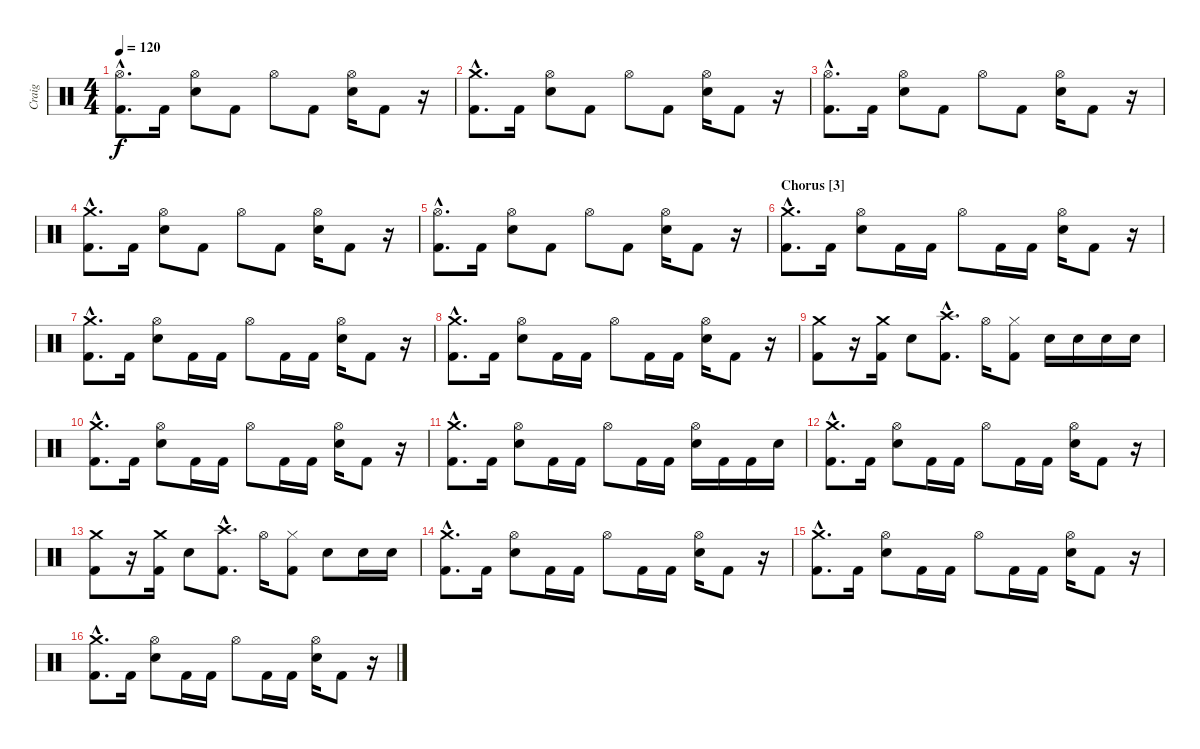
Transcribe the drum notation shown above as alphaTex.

\track ("Craig" "Craig") {instrument percussion}
\staff {score}
\articulation defaults
\ts (4 4)
\tempo 120
\clef neutral
\ks c
("Hi-Hat (open)"{hac} "Kick (hit) 2"{hac}).8{d dy f} "Kick (hit) 2".16 ("Hi-Hat (open)" "Electric Snare (hit)").8 "Kick (hit) 2".8 "Hi-Hat (open)".8 "Kick (hit) 2".8 ("Hi-Hat (open)" "Electric Snare (hit)").16 "Kick (hit) 2".8 r.16 |
("Crash medium (hit)"{hac} "Kick (hit) 2"{hac}).8{d} "Kick (hit) 2".16 ("Hi-Hat (open)" "Electric Snare (hit)").8 "Kick (hit) 2".8 "Hi-Hat (open)".8 "Kick (hit) 2".8 ("Hi-Hat (open)" "Electric Snare (hit)").16 "Kick (hit) 2".8 r.16 |
("Hi-Hat (open)"{hac} "Kick (hit) 2"{hac}).8{d} "Kick (hit) 2".16 ("Hi-Hat (open)" "Electric Snare (hit)").8 "Kick (hit) 2".8 "Hi-Hat (open)".8 "Kick (hit) 2".8 ("Hi-Hat (open)" "Electric Snare (hit)").16 "Kick (hit) 2".8 r.16 |
("Crash medium (hit)"{hac} "Kick (hit) 2"{hac}).8{d} "Kick (hit) 2".16 ("Hi-Hat (open)" "Electric Snare (hit)").8 "Kick (hit) 2".8 "Hi-Hat (open)".8 "Kick (hit) 2".8 ("Hi-Hat (open)" "Electric Snare (hit)").16 "Kick (hit) 2".8 r.16 |
("Hi-Hat (open)"{hac} "Kick (hit) 2"{hac}).8{d} "Kick (hit) 2".16 ("Hi-Hat (open)" "Electric Snare (hit)").8 "Kick (hit) 2".8 "Hi-Hat (open)".8 "Kick (hit) 2".8 ("Hi-Hat (open)" "Electric Snare (hit)").16 "Kick (hit) 2".8 r.16 |
\section ("" "Chorus [3]")
("Crash medium (hit)"{hac} "Kick (hit) 2"{hac}).8{d} "Kick (hit) 2".16 ("Hi-Hat (open)" "Electric Snare (hit)").8 "Kick (hit) 2".16 "Kick (hit) 2".16 "Hi-Hat (open)".8 "Kick (hit) 2".16 "Kick (hit) 2".16 ("Hi-Hat (open)" "Electric Snare (hit)").16 "Kick (hit) 2".8 r.16 |
("Crash medium (hit)"{hac} "Kick (hit) 2"{hac}).8{d} "Kick (hit) 2".16 ("Hi-Hat (open)" "Electric Snare (hit)").8 "Kick (hit) 2".16 "Kick (hit) 2".16 "Hi-Hat (open)".8 "Kick (hit) 2".16 "Kick (hit) 2".16 ("Hi-Hat (open)" "Electric Snare (hit)").16 "Kick (hit) 2".8 r.16 |
("Crash medium (hit)"{hac} "Kick (hit) 2"{hac}).8{d} "Kick (hit) 2".16 ("Hi-Hat (open)" "Electric Snare (hit)").8 "Kick (hit) 2".16 "Kick (hit) 2".16 "Hi-Hat (open)".8 "Kick (hit) 2".16 "Kick (hit) 2".16 ("Hi-Hat (open)" "Electric Snare (hit)").16 "Kick (hit) 2".8 r.16 |
("Crash medium (hit)" "Kick (hit) 2").8 r.16 ("Crash medium (hit)" "Kick (hit) 2").16 "Electric Snare (hit)".8 ("Crash high (hit)"{hac} "Kick (hit) 2"{hac}).8{d} "Hi-Hat (open)".16 ("Hi-Hat (closed)" "Kick (hit) 2").8 "Electric Snare (hit)".16 "Electric Snare (hit)".16 "Electric Snare (hit)".16 "Electric Snare (hit)".16 |
("Crash medium (hit)"{hac} "Kick (hit) 2"{hac}).8{d} "Kick (hit) 2".16 ("Hi-Hat (open)" "Electric Snare (hit)").8 "Kick (hit) 2".16 "Kick (hit) 2".16 "Hi-Hat (open)".8 "Kick (hit) 2".16 "Kick (hit) 2".16 ("Hi-Hat (open)" "Electric Snare (hit)").16 "Kick (hit) 2".8 r.16 |
("Crash medium (hit)"{hac} "Kick (hit) 2"{hac}).8{d} "Kick (hit) 2".16 ("Hi-Hat (open)" "Electric Snare (hit)").8 "Kick (hit) 2".16 "Kick (hit) 2".16 "Hi-Hat (open)".8 "Kick (hit) 2".16 "Kick (hit) 2".16 ("Hi-Hat (open)" "Electric Snare (hit)").16 "Kick (hit) 2".16 "Kick (hit) 2".16 "Electric Snare (hit)".16 |
("Crash medium (hit)"{hac} "Kick (hit) 2"{hac}).8{d} "Kick (hit) 2".16 ("Hi-Hat (open)" "Electric Snare (hit)").8 "Kick (hit) 2".16 "Kick (hit) 2".16 "Hi-Hat (open)".8 "Kick (hit) 2".16 "Kick (hit) 2".16 ("Hi-Hat (open)" "Electric Snare (hit)").16 "Kick (hit) 2".8 r.16 |
("Crash medium (hit)" "Kick (hit) 2").8 r.16 ("Crash medium (hit)" "Kick (hit) 2").16 "Electric Snare (hit)".8 ("Crash high (hit)"{hac} "Kick (hit) 2"{hac}).8{d} "Hi-Hat (open)".16 ("Hi-Hat (closed)" "Kick (hit) 2").8 "Electric Snare (hit)".8 "Electric Snare (hit)".16 "Electric Snare (hit)".16 |
("Crash medium (hit)"{hac} "Kick (hit) 2"{hac}).8{d} "Kick (hit) 2".16 ("Hi-Hat (open)" "Electric Snare (hit)").8 "Kick (hit) 2".16 "Kick (hit) 2".16 "Hi-Hat (open)".8 "Kick (hit) 2".16 "Kick (hit) 2".16 ("Hi-Hat (open)" "Electric Snare (hit)").16 "Kick (hit) 2".8 r.16 |
("Crash medium (hit)"{hac} "Kick (hit) 2"{hac}).8{d} "Kick (hit) 2".16 ("Hi-Hat (open)" "Electric Snare (hit)").8 "Kick (hit) 2".16 "Kick (hit) 2".16 "Hi-Hat (open)".8 "Kick (hit) 2".16 "Kick (hit) 2".16 ("Hi-Hat (open)" "Electric Snare (hit)").16 "Kick (hit) 2".8 r.16 |
("Crash medium (hit)"{hac} "Kick (hit) 2"{hac}).8{d} "Kick (hit) 2".16 ("Hi-Hat (open)" "Electric Snare (hit)").8 "Kick (hit) 2".16 "Kick (hit) 2".16 "Hi-Hat (open)".8 "Kick (hit) 2".16 "Kick (hit) 2".16 ("Hi-Hat (open)" "Electric Snare (hit)").16 "Kick (hit) 2".8 r.16
